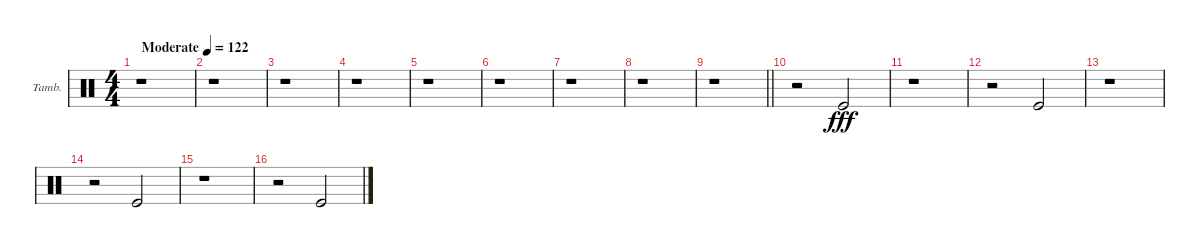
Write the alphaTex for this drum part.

\bracketExtendMode groupsimilarinstruments
\firstSystemTrackNameOrientation horizontal
\otherSystemsTrackNameOrientation horizontal
\track ("Tambourine" "Tamb.") {instrument percussion}
\staff {score}
\articulation defaults
\ts (4 4)
\beaming (8 2 2 2 2)
\tempo (122 "Moderate")
\clef neutral
\ks c
r.1{dy fff} |
r.1 |
r.1 |
r.1 |
r.1 |
r.1 |
r.1 |
r.1 |
\barLineRight lightlight
r.1 |
r.2 "Kick (hit)".2 |
r.1 |
r.2 "Kick (hit)".2 |
r.1 |
r.2 "Kick (hit)".2 |
r.1 |
r.2 "Kick (hit)".2
